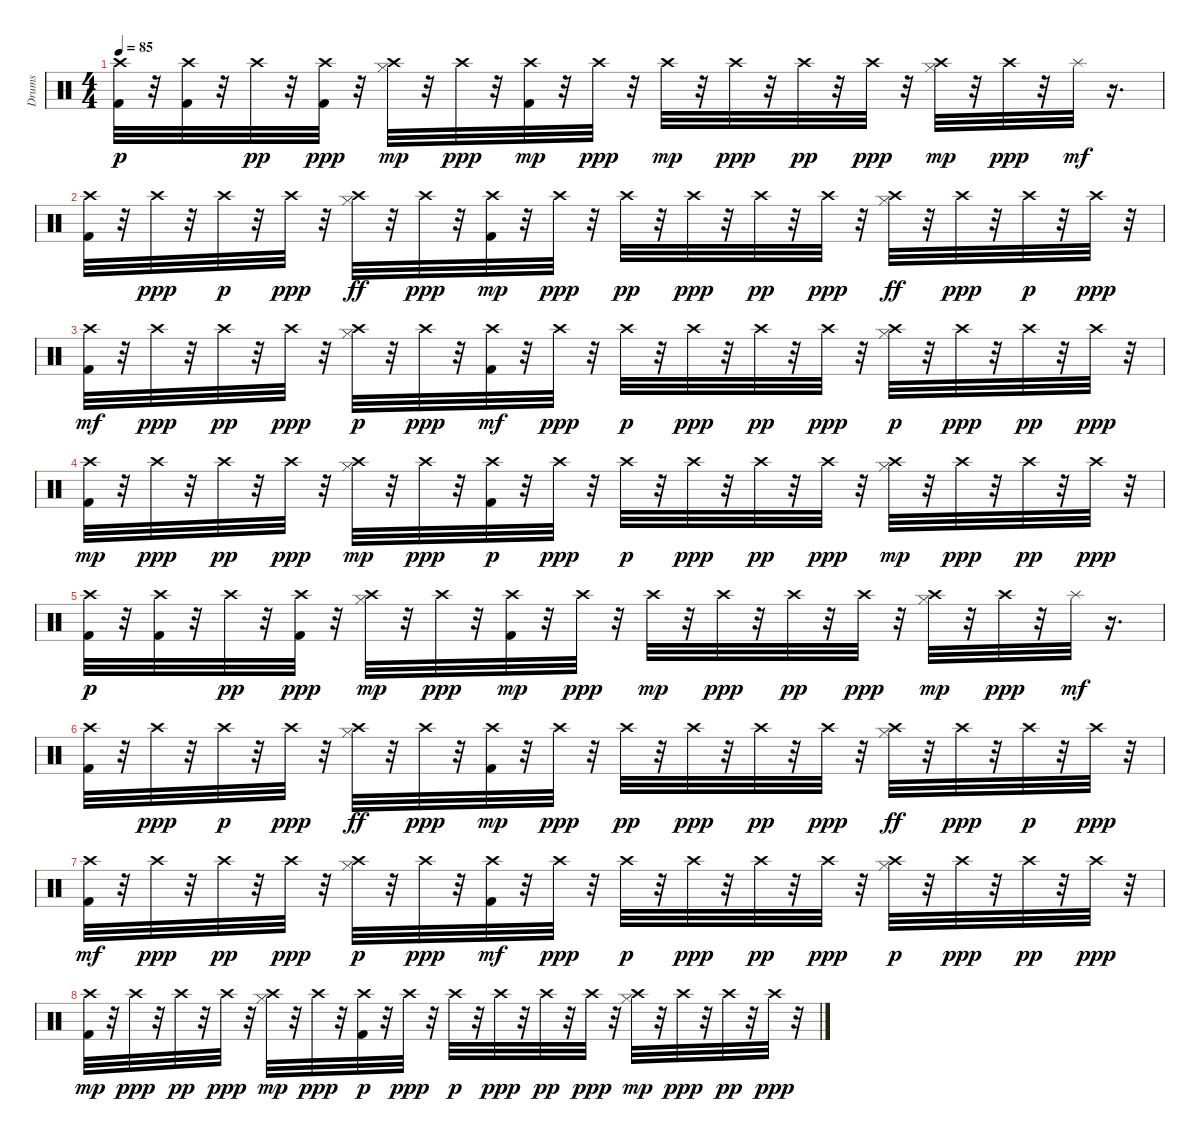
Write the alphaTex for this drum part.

\track ("Drums" "Drums") {instrument percussion}
\staff {score}
\articulation defaults
\ts (4 4)
\tempo 85
\clef neutral
\ks c
("Crash high (hit)" "Kick (hit) 2").32{dy p} r.32 ("Kick (hit) 2" "Crash high (hit)").32 r.32 "Crash high (hit)".32{dy pp} r.32 ("Kick (hit) 2" "Crash high (hit)").32{dy ppp} r.32 ("Hi-Hat (closed)" "Crash high (hit)").32{dy mp} r.32 "Crash high (hit)".32{dy ppp} r.32 ("Crash high (hit)" "Kick (hit) 2").32{dy mp} r.32 "Crash high (hit)".32{dy ppp} r.32 "Crash high (hit)".32{dy mp} r.32 "Crash high (hit)".32{dy ppp} r.32 "Crash high (hit)".32{dy pp} r.32 "Crash high (hit)".32{dy ppp} r.32 ("Hi-Hat (closed)" "Crash high (hit)").32{dy mp} r.32 "Crash high (hit)".32{dy ppp} r.32 "Splash (hit)".32{dy mf} r.16{d} |
("Crash high (hit)" "Kick (hit) 2").32 r.32 "Crash high (hit)".32{dy ppp} r.32 "Crash high (hit)".32{dy p} r.32 "Crash high (hit)".32{dy ppp} r.32 ("Crash high (hit)" "Hi-Hat (closed)").32{dy ff} r.32 "Crash high (hit)".32{dy ppp} r.32 ("Crash high (hit)" "Kick (hit) 2").32{dy mp} r.32 "Crash high (hit)".32{dy ppp} r.32 "Crash high (hit)".32{dy pp} r.32 "Crash high (hit)".32{dy ppp} r.32 "Crash high (hit)".32{dy pp} r.32 "Crash high (hit)".32{dy ppp} r.32 ("Crash high (hit)" "Hi-Hat (closed)").32{dy ff} r.32 "Crash high (hit)".32{dy ppp} r.32 "Crash high (hit)".32{dy p} r.32 "Crash high (hit)".32{dy ppp} r.32 |
("Crash high (hit)" "Kick (hit) 2").32{dy mf} r.32 "Crash high (hit)".32{dy ppp} r.32 "Crash high (hit)".32{dy pp} r.32 "Crash high (hit)".32{dy ppp} r.32 ("Hi-Hat (closed)" "Crash high (hit)").32{dy p} r.32 "Crash high (hit)".32{dy ppp} r.32 ("Crash high (hit)" "Kick (hit) 2").32{dy mf} r.32 "Crash high (hit)".32{dy ppp} r.32 "Crash high (hit)".32{dy p} r.32 "Crash high (hit)".32{dy ppp} r.32 "Crash high (hit)".32{dy pp} r.32 "Crash high (hit)".32{dy ppp} r.32 ("Hi-Hat (closed)" "Crash high (hit)").32{dy p} r.32 "Crash high (hit)".32{dy ppp} r.32 "Crash high (hit)".32{dy pp} r.32 "Crash high (hit)".32{dy ppp} r.32 |
("Kick (hit) 2" "Crash high (hit)").32{dy mp} r.32 "Crash high (hit)".32{dy ppp} r.32 "Crash high (hit)".32{dy pp} r.32 "Crash high (hit)".32{dy ppp} r.32 ("Hi-Hat (closed)" "Crash high (hit)").32{dy mp} r.32 "Crash high (hit)".32{dy ppp} r.32 ("Kick (hit) 2" "Crash high (hit)").32{dy p} r.32 "Crash high (hit)".32{dy ppp} r.32 "Crash high (hit)".32{dy p} r.32 "Crash high (hit)".32{dy ppp} r.32 "Crash high (hit)".32{dy pp} r.32 "Crash high (hit)".32{dy ppp} r.32 ("Hi-Hat (closed)" "Crash high (hit)").32{dy mp} r.32 "Crash high (hit)".32{dy ppp} r.32 "Crash high (hit)".32{dy pp} r.32 "Crash high (hit)".32{dy ppp} r.32 |
("Crash high (hit)" "Kick (hit) 2").32{dy p} r.32 ("Kick (hit) 2" "Crash high (hit)").32 r.32 "Crash high (hit)".32{dy pp} r.32 ("Kick (hit) 2" "Crash high (hit)").32{dy ppp} r.32 ("Hi-Hat (closed)" "Crash high (hit)").32{dy mp} r.32 "Crash high (hit)".32{dy ppp} r.32 ("Crash high (hit)" "Kick (hit) 2").32{dy mp} r.32 "Crash high (hit)".32{dy ppp} r.32 "Crash high (hit)".32{dy mp} r.32 "Crash high (hit)".32{dy ppp} r.32 "Crash high (hit)".32{dy pp} r.32 "Crash high (hit)".32{dy ppp} r.32 ("Hi-Hat (closed)" "Crash high (hit)").32{dy mp} r.32 "Crash high (hit)".32{dy ppp} r.32 "Splash (hit)".32{dy mf} r.16{d} |
("Crash high (hit)" "Kick (hit) 2").32 r.32 "Crash high (hit)".32{dy ppp} r.32 "Crash high (hit)".32{dy p} r.32 "Crash high (hit)".32{dy ppp} r.32 ("Crash high (hit)" "Hi-Hat (closed)").32{dy ff} r.32 "Crash high (hit)".32{dy ppp} r.32 ("Crash high (hit)" "Kick (hit) 2").32{dy mp} r.32 "Crash high (hit)".32{dy ppp} r.32 "Crash high (hit)".32{dy pp} r.32 "Crash high (hit)".32{dy ppp} r.32 "Crash high (hit)".32{dy pp} r.32 "Crash high (hit)".32{dy ppp} r.32 ("Crash high (hit)" "Hi-Hat (closed)").32{dy ff} r.32 "Crash high (hit)".32{dy ppp} r.32 "Crash high (hit)".32{dy p} r.32 "Crash high (hit)".32{dy ppp} r.32 |
("Crash high (hit)" "Kick (hit) 2").32{dy mf} r.32 "Crash high (hit)".32{dy ppp} r.32 "Crash high (hit)".32{dy pp} r.32 "Crash high (hit)".32{dy ppp} r.32 ("Hi-Hat (closed)" "Crash high (hit)").32{dy p} r.32 "Crash high (hit)".32{dy ppp} r.32 ("Crash high (hit)" "Kick (hit) 2").32{dy mf} r.32 "Crash high (hit)".32{dy ppp} r.32 "Crash high (hit)".32{dy p} r.32 "Crash high (hit)".32{dy ppp} r.32 "Crash high (hit)".32{dy pp} r.32 "Crash high (hit)".32{dy ppp} r.32 ("Hi-Hat (closed)" "Crash high (hit)").32{dy p} r.32 "Crash high (hit)".32{dy ppp} r.32 "Crash high (hit)".32{dy pp} r.32 "Crash high (hit)".32{dy ppp} r.32 |
("Kick (hit) 2" "Crash high (hit)").32{dy mp} r.32 "Crash high (hit)".32{dy ppp} r.32 "Crash high (hit)".32{dy pp} r.32 "Crash high (hit)".32{dy ppp} r.32 ("Hi-Hat (closed)" "Crash high (hit)").32{dy mp} r.32 "Crash high (hit)".32{dy ppp} r.32 ("Kick (hit) 2" "Crash high (hit)").32{dy p} r.32 "Crash high (hit)".32{dy ppp} r.32 "Crash high (hit)".32{dy p} r.32 "Crash high (hit)".32{dy ppp} r.32 "Crash high (hit)".32{dy pp} r.32 "Crash high (hit)".32{dy ppp} r.32 ("Hi-Hat (closed)" "Crash high (hit)").32{dy mp} r.32 "Crash high (hit)".32{dy ppp} r.32 "Crash high (hit)".32{dy pp} r.32 "Crash high (hit)".32{dy ppp} r.32
